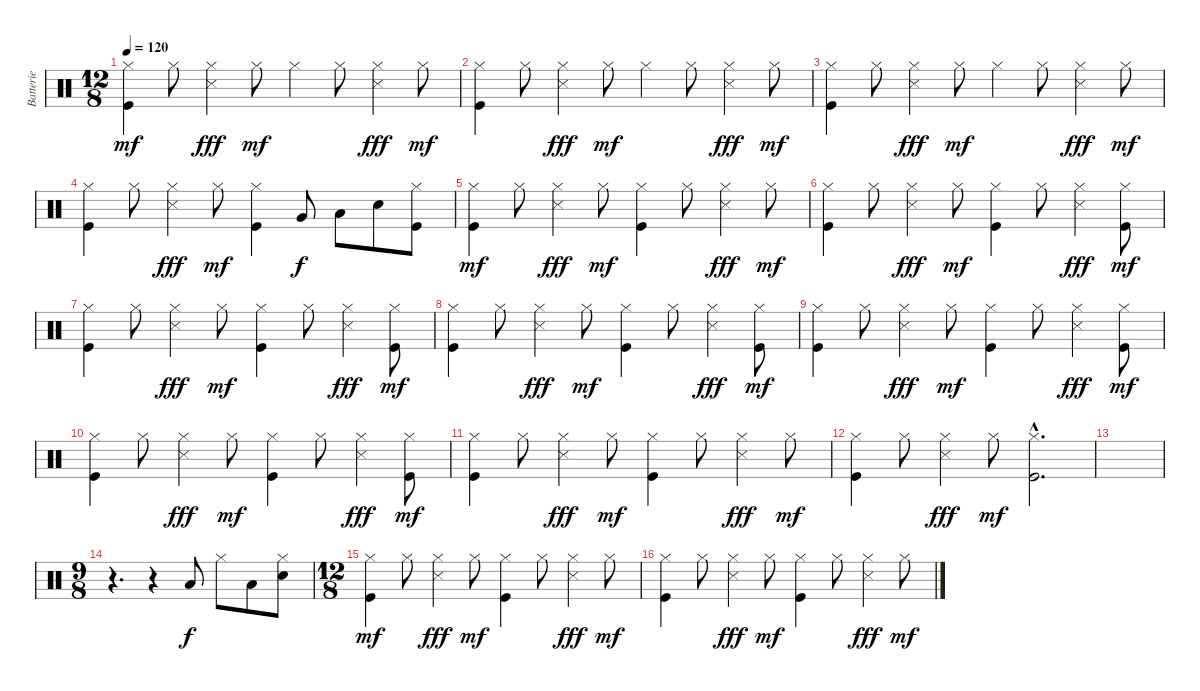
\track ("Batterie" "Batterie") {instrument percussion}
\staff {score}
\articulation defaults
\ts (12 8)
\tempo 120
\clef neutral
\ks c
("Hi-Hat (closed)" "Kick (hit)").4{dy mf} "Hi-Hat (closed)".8 ("Hi-Hat (closed)" "Snare (side stick) 3").4{dy fff} "Hi-Hat (closed)".8{dy mf} "Hi-Hat (closed)".4 "Hi-Hat (closed)".8 ("Hi-Hat (closed)" "Snare (side stick) 3").4{dy fff} "Hi-Hat (closed)".8{dy mf} |
("Hi-Hat (closed)" "Kick (hit)").4 "Hi-Hat (closed)".8 ("Hi-Hat (closed)" "Snare (side stick) 3").4{dy fff} "Hi-Hat (closed)".8{dy mf} "Hi-Hat (closed)".4 "Hi-Hat (closed)".8 ("Hi-Hat (closed)" "Snare (side stick) 3").4{dy fff} "Hi-Hat (closed)".8{dy mf} |
("Hi-Hat (closed)" "Kick (hit)").4 "Hi-Hat (closed)".8 ("Hi-Hat (closed)" "Snare (side stick) 3").4{dy fff} "Hi-Hat (closed)".8{dy mf} "Hi-Hat (closed)".4 "Hi-Hat (closed)".8 ("Hi-Hat (closed)" "Snare (side stick) 3").4{dy fff} "Hi-Hat (closed)".8{dy mf} |
("Hi-Hat (closed)" "Kick (hit)").4 "Hi-Hat (closed)".8 ("Hi-Hat (closed)" "Snare (side stick) 3").4{dy fff} "Hi-Hat (closed)".8{dy mf} ("Hi-Hat (closed)" "Kick (hit)").4 "Very Low Tom (hit)".8{dy f} "Low Floor Tom (hit)".8 "Snare (hit) 2".8 ("Hi-Hat (closed)" "Kick (hit)").8 |
("Hi-Hat (closed)" "Kick (hit)").4{dy mf} "Hi-Hat (closed)".8 ("Hi-Hat (closed)" "Snare (side stick) 3").4{dy fff} "Hi-Hat (closed)".8{dy mf} ("Hi-Hat (closed)" "Kick (hit)").4 "Hi-Hat (closed)".8 ("Hi-Hat (closed)" "Snare (side stick) 3").4{dy fff} "Hi-Hat (closed)".8{dy mf} |
("Hi-Hat (closed)" "Kick (hit)").4 "Hi-Hat (closed)".8 ("Hi-Hat (closed)" "Snare (side stick) 3").4{dy fff} "Hi-Hat (closed)".8{dy mf} ("Hi-Hat (closed)" "Kick (hit)").4 "Hi-Hat (closed)".8 ("Hi-Hat (closed)" "Snare (side stick) 3").4{dy fff} ("Hi-Hat (closed)" "Kick (hit)").8{dy mf} |
("Hi-Hat (closed)" "Kick (hit)").4 "Hi-Hat (closed)".8 ("Hi-Hat (closed)" "Snare (side stick) 3").4{dy fff} "Hi-Hat (closed)".8{dy mf} ("Hi-Hat (closed)" "Kick (hit)").4 "Hi-Hat (closed)".8 ("Hi-Hat (closed)" "Snare (side stick) 3").4{dy fff} ("Hi-Hat (closed)" "Kick (hit)").8{dy mf} |
("Hi-Hat (closed)" "Kick (hit)").4 "Hi-Hat (closed)".8 ("Hi-Hat (closed)" "Snare (side stick) 3").4{dy fff} "Hi-Hat (closed)".8{dy mf} ("Hi-Hat (closed)" "Kick (hit)").4 "Hi-Hat (closed)".8 ("Hi-Hat (closed)" "Snare (side stick) 3").4{dy fff} ("Hi-Hat (closed)" "Kick (hit)").8{dy mf} |
("Hi-Hat (closed)" "Kick (hit)").4 "Hi-Hat (closed)".8 ("Hi-Hat (closed)" "Snare (side stick) 3").4{dy fff} "Hi-Hat (closed)".8{dy mf} ("Hi-Hat (closed)" "Kick (hit)").4 "Hi-Hat (closed)".8 ("Hi-Hat (closed)" "Snare (side stick) 3").4{dy fff} ("Hi-Hat (closed)" "Kick (hit)").8{dy mf} |
("Hi-Hat (closed)" "Kick (hit)").4 "Hi-Hat (closed)".8 ("Hi-Hat (closed)" "Snare (side stick) 3").4{dy fff} "Hi-Hat (closed)".8{dy mf} ("Hi-Hat (closed)" "Kick (hit)").4 "Hi-Hat (closed)".8 ("Hi-Hat (closed)" "Snare (side stick) 3").4{dy fff} ("Hi-Hat (closed)" "Kick (hit)").8{dy mf} |
("Hi-Hat (closed)" "Kick (hit)").4 "Hi-Hat (closed)".8 ("Hi-Hat (closed)" "Snare (side stick) 3").4{dy fff} "Hi-Hat (closed)".8{dy mf} ("Hi-Hat (closed)" "Kick (hit)").4 "Hi-Hat (closed)".8 ("Hi-Hat (closed)" "Snare (side stick) 3").4{dy fff} "Hi-Hat (closed)".8{dy mf} |
("Hi-Hat (closed)" "Kick (hit)").4 "Hi-Hat (closed)".8 ("Hi-Hat (closed)" "Snare (side stick) 3").4{dy fff} "Hi-Hat (closed)".8{dy mf} ("Hi-Hat (closed)"{hac} "Kick (hit)"{hac}).2{d} |
|
\ts (9 8)
r.4{d} r.4 "Low Tom (hit)".8{dy f} "Hi-Hat (closed)".8 "Low Floor Tom (hit)".8 ("Hi-Hat (closed)" "Snare (hit) 2").8 |
\ts (12 8)
("Hi-Hat (closed)" "Kick (hit)").4{dy mf} "Hi-Hat (closed)".8 ("Hi-Hat (closed)" "Snare (side stick) 3").4{dy fff} "Hi-Hat (closed)".8{dy mf} ("Hi-Hat (closed)" "Kick (hit)").4 "Hi-Hat (closed)".8 ("Hi-Hat (closed)" "Snare (side stick) 3").4{dy fff} "Hi-Hat (closed)".8{dy mf} |
("Hi-Hat (closed)" "Kick (hit)").4 "Hi-Hat (closed)".8 ("Hi-Hat (closed)" "Snare (side stick) 3").4{dy fff} "Hi-Hat (closed)".8{dy mf} ("Hi-Hat (closed)" "Kick (hit)").4 "Hi-Hat (closed)".8 ("Hi-Hat (closed)" "Snare (side stick) 3").4{dy fff} "Hi-Hat (closed)".8{dy mf}
